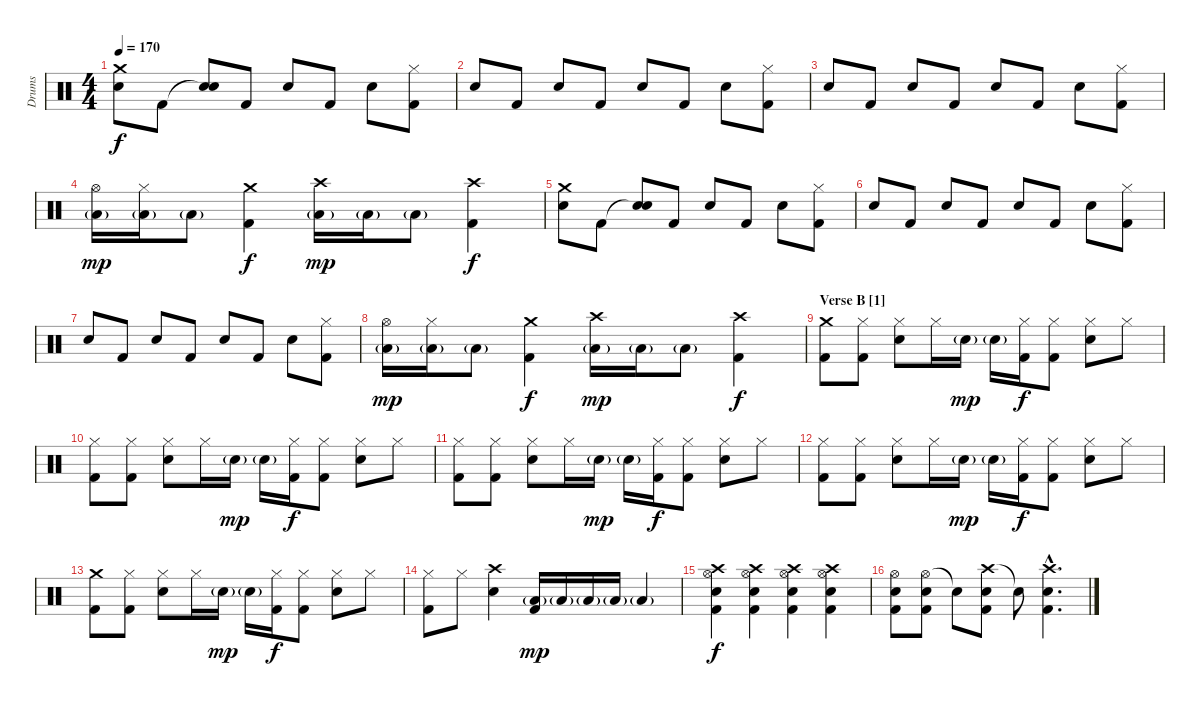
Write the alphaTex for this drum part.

\track ("Drums" "Drums") {instrument percussion}
\staff {score}
\articulation defaults
\ts (4 4)
\tempo 170
\clef neutral
\ks c
("Crash medium (hit)" "Electric Snare (hit)").8{dy f} "Kick (hit) 2".8 ("Snare (hit)"{t} "Electric Snare (hit)").8 "Kick (hit) 2".8 "Electric Snare (hit)".8 "Kick (hit) 2".8 "Electric Snare (hit)".8 ("Hi-Hat (closed)" "Kick (hit) 2").8 |
"Electric Snare (hit)".8 "Kick (hit) 2".8 "Electric Snare (hit)".8 "Kick (hit) 2".8 "Electric Snare (hit)".8 "Kick (hit) 2".8 "Electric Snare (hit)".8 ("Hi-Hat (closed)" "Kick (hit) 2").8 |
"Electric Snare (hit)".8 "Kick (hit) 2".8 "Electric Snare (hit)".8 "Kick (hit) 2".8 "Electric Snare (hit)".8 "Kick (hit) 2".8 "Electric Snare (hit)".8 ("Hi-Hat (closed)" "Kick (hit) 2").8 |
("Hi-Hat (open)" "Low Tom (hit)"{g}).16{dy mp} ("Hi-Hat (closed)" "Low Tom (hit)"{g}).16 "Low Tom (hit)"{g}.8 ("Crash medium (hit)" "Kick (hit) 2").4{dy f} ("Crash high (hit)" "Low Tom (hit)"{g}).16{dy mp} "Low Tom (hit)"{g}.16 "Low Tom (hit)"{g}.8 ("Crash high (hit)" "Kick (hit) 2").4{dy f} |
("Crash medium (hit)" "Electric Snare (hit)").8 "Kick (hit) 2".8 ("Snare (hit)"{t} "Electric Snare (hit)").8 "Kick (hit) 2".8 "Electric Snare (hit)".8 "Kick (hit) 2".8 "Electric Snare (hit)".8 ("Hi-Hat (closed)" "Kick (hit) 2").8 |
"Electric Snare (hit)".8 "Kick (hit) 2".8 "Electric Snare (hit)".8 "Kick (hit) 2".8 "Electric Snare (hit)".8 "Kick (hit) 2".8 "Electric Snare (hit)".8 ("Hi-Hat (closed)" "Kick (hit) 2").8 |
"Electric Snare (hit)".8 "Kick (hit) 2".8 "Electric Snare (hit)".8 "Kick (hit) 2".8 "Electric Snare (hit)".8 "Kick (hit) 2".8 "Electric Snare (hit)".8 ("Hi-Hat (closed)" "Kick (hit) 2").8 |
("Hi-Hat (open)" "Low Tom (hit)"{g}).16{dy mp} ("Hi-Hat (closed)" "Low Tom (hit)"{g}).16 "Low Tom (hit)"{g}.8 ("Crash medium (hit)" "Kick (hit) 2").4{dy f} ("Crash high (hit)" "Low Tom (hit)"{g}).16{dy mp} "Low Tom (hit)"{g}.16 "Low Tom (hit)"{g}.8 ("Crash high (hit)" "Kick (hit) 2").4{dy f} |
\section ("" "Verse B [1]")
("Crash medium (hit)" "Kick (hit) 2").8 ("Hi-Hat (closed)" "Kick (hit) 2").8 ("Hi-Hat (closed)" "Electric Snare (hit)").8 "Hi-Hat (closed)".16 "Electric Snare (hit)"{g}.16{dy mp} "Electric Snare (hit)"{g}.16 ("Hi-Hat (closed)" "Kick (hit) 2").16{dy f} ("Hi-Hat (closed)" "Kick (hit) 2").8 ("Hi-Hat (closed)" "Electric Snare (hit)").8 "Hi-Hat (closed)".8 |
("Hi-Hat (closed)" "Kick (hit) 2").8 ("Hi-Hat (closed)" "Kick (hit) 2").8 ("Hi-Hat (closed)" "Electric Snare (hit)").8 "Hi-Hat (closed)".16 "Electric Snare (hit)"{g}.16{dy mp} "Electric Snare (hit)"{g}.16 ("Hi-Hat (closed)" "Kick (hit) 2").16{dy f} ("Hi-Hat (closed)" "Kick (hit) 2").8 ("Hi-Hat (closed)" "Electric Snare (hit)").8 "Hi-Hat (closed)".8 |
("Hi-Hat (closed)" "Kick (hit) 2").8 ("Hi-Hat (closed)" "Kick (hit) 2").8 ("Hi-Hat (closed)" "Electric Snare (hit)").8 "Hi-Hat (closed)".16 "Electric Snare (hit)"{g}.16{dy mp} "Electric Snare (hit)"{g}.16 ("Hi-Hat (closed)" "Kick (hit) 2").16{dy f} ("Hi-Hat (closed)" "Kick (hit) 2").8 ("Hi-Hat (closed)" "Electric Snare (hit)").8 "Hi-Hat (closed)".8 |
("Hi-Hat (closed)" "Kick (hit) 2").8 ("Hi-Hat (closed)" "Kick (hit) 2").8 ("Hi-Hat (closed)" "Electric Snare (hit)").8 "Hi-Hat (closed)".16 "Electric Snare (hit)"{g}.16{dy mp} "Electric Snare (hit)"{g}.16 ("Hi-Hat (closed)" "Kick (hit) 2").16{dy f} ("Hi-Hat (closed)" "Kick (hit) 2").8 ("Hi-Hat (closed)" "Electric Snare (hit)").8 "Hi-Hat (closed)".8 |
("Crash medium (hit)" "Kick (hit) 2").8 ("Hi-Hat (closed)" "Kick (hit) 2").8 ("Hi-Hat (closed)" "Electric Snare (hit)").8 "Hi-Hat (closed)".16 "Electric Snare (hit)"{g}.16{dy mp} "Electric Snare (hit)"{g}.16 ("Hi-Hat (closed)" "Kick (hit) 2").16{dy f} ("Hi-Hat (closed)" "Kick (hit) 2").8 ("Hi-Hat (closed)" "Electric Snare (hit)").8 "Hi-Hat (closed)".8 |
("Hi-Hat (closed)" "Kick (hit) 2").8 "Hi-Hat (closed)".8 ("Crash high (hit)" "Electric Snare (hit)").4 ("Low Tom (hit)"{g} "Kick (hit) 2").16{dy mp} "Low Tom (hit)"{g}.16 "Low Tom (hit)"{g}.16 "Low Tom (hit)"{g}.16 "Low Tom (hit)"{g}.4 |
("Hi-Hat (open)" "Crash high (hit)" "Electric Snare (hit)" "Kick (hit) 2").4{dy f} ("Hi-Hat (open)" "Crash high (hit)" "Electric Snare (hit)" "Kick (hit) 2").4 ("Hi-Hat (open)" "Crash high (hit)" "Electric Snare (hit)" "Kick (hit) 2").4 ("Hi-Hat (open)" "Crash high (hit)" "Electric Snare (hit)" "Kick (hit) 2").4 |
("Hi-Hat (open)" "Electric Snare (hit)" "Kick (hit) 2").8 ("Hi-Hat (open)" "Electric Snare (hit)" "Kick (hit) 2").8 "Snare (hit)"{t}.8 ("Crash high (hit)" "Electric Snare (hit)" "Kick (hit) 2").8 "Snare (hit)"{t}.8 ("Crash high (hit)"{hac} "Electric Snare (hit)"{hac} "Kick (hit) 2"{hac}).4{d}
